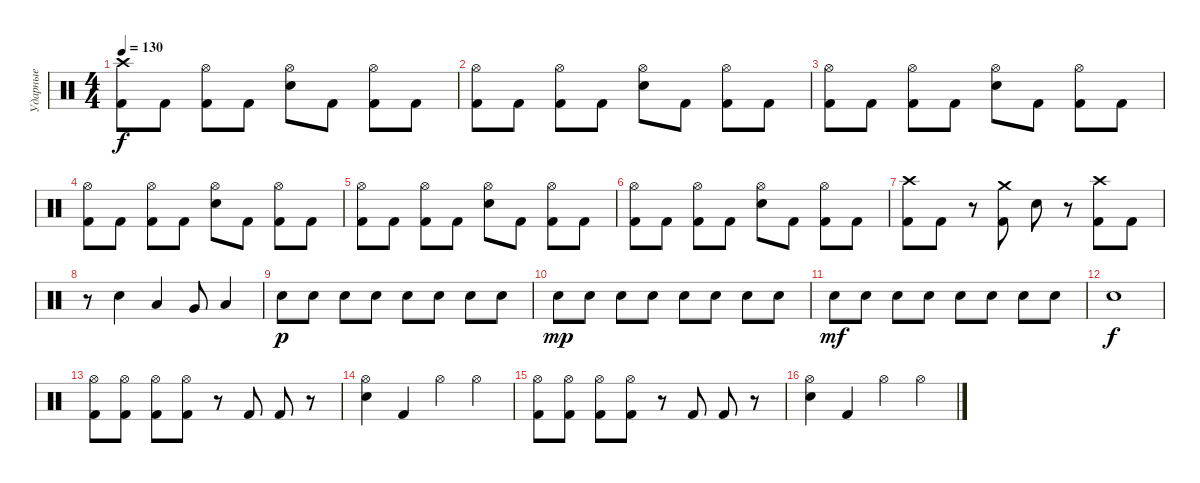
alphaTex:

\track ("Ударные" "Ударные") {instrument percussion}
\staff {score}
\articulation defaults
\ts (4 4)
\tempo 130
\clef neutral
\ks c
("Crash high (hit)" "Kick (hit) 2").8{dy f} "Kick (hit) 2".8 ("Hi-Hat (open)" "Kick (hit) 2").8 "Kick (hit) 2".8 ("Hi-Hat (open)" "Snare (hit) 2").8 "Kick (hit) 2".8 ("Hi-Hat (open)" "Kick (hit) 2").8 "Kick (hit) 2".8 |
("Hi-Hat (open)" "Kick (hit) 2").8 "Kick (hit) 2".8 ("Hi-Hat (open)" "Kick (hit) 2").8 "Kick (hit) 2".8 ("Hi-Hat (open)" "Snare (hit) 2").8 "Kick (hit) 2".8 ("Hi-Hat (open)" "Kick (hit) 2").8 "Kick (hit) 2".8 |
("Hi-Hat (open)" "Kick (hit) 2").8 "Kick (hit) 2".8 ("Hi-Hat (open)" "Kick (hit) 2").8 "Kick (hit) 2".8 ("Hi-Hat (open)" "Snare (hit) 2").8 "Kick (hit) 2".8 ("Hi-Hat (open)" "Kick (hit) 2").8 "Kick (hit) 2".8 |
("Hi-Hat (open)" "Kick (hit) 2").8 "Kick (hit) 2".8 ("Hi-Hat (open)" "Kick (hit) 2").8 "Kick (hit) 2".8 ("Hi-Hat (open)" "Snare (hit) 2").8 "Kick (hit) 2".8 ("Hi-Hat (open)" "Kick (hit) 2").8 "Kick (hit) 2".8 |
("Hi-Hat (open)" "Kick (hit) 2").8 "Kick (hit) 2".8 ("Hi-Hat (open)" "Kick (hit) 2").8 "Kick (hit) 2".8 ("Hi-Hat (open)" "Snare (hit) 2").8 "Kick (hit) 2".8 ("Hi-Hat (open)" "Kick (hit) 2").8 "Kick (hit) 2".8 |
("Hi-Hat (open)" "Kick (hit) 2").8 "Kick (hit) 2".8 ("Hi-Hat (open)" "Kick (hit) 2").8 "Kick (hit) 2".8 ("Hi-Hat (open)" "Snare (hit) 2").8 "Kick (hit) 2".8 ("Hi-Hat (open)" "Kick (hit) 2").8 "Kick (hit) 2".8 |
("Crash high (hit)" "Kick (hit) 2").8 "Kick (hit) 2".8 r.8 ("Crash medium (hit)" "Kick (hit) 2").8 "Snare (hit) 2".8 r.8 ("Crash high (hit)" "Kick (hit) 2").8 "Kick (hit) 2".8 |
r.8 "Snare (hit) 2".4 "Low Tom (hit)".4 "Very Low Tom (hit)".8 "Low Floor Tom (hit)".4 |
"Snare (hit) 2".8{dy p} "Snare (hit) 2".8 "Snare (hit) 2".8 "Snare (hit) 2".8 "Snare (hit) 2".8 "Snare (hit) 2".8 "Snare (hit) 2".8 "Snare (hit) 2".8 |
"Snare (hit) 2".8{dy mp} "Snare (hit) 2".8 "Snare (hit) 2".8 "Snare (hit) 2".8 "Snare (hit) 2".8 "Snare (hit) 2".8 "Snare (hit) 2".8 "Snare (hit) 2".8 |
"Snare (hit) 2".8{dy mf} "Snare (hit) 2".8 "Snare (hit) 2".8 "Snare (hit) 2".8 "Snare (hit) 2".8 "Snare (hit) 2".8 "Snare (hit) 2".8 "Snare (hit) 2".8 |
"Snare (hit) 2".1{dy f} |
("Hi-Hat (open)" "Kick (hit) 2").8 ("Hi-Hat (open)" "Kick (hit) 2").8 ("Hi-Hat (open)" "Kick (hit) 2").8 ("Hi-Hat (open)" "Kick (hit) 2").8 r.8 "Kick (hit) 2".8 "Kick (hit) 2".8 r.8 |
("Hi-Hat (open)" "Snare (hit) 2").4 "Kick (hit) 2".4 "Hi-Hat (open)".4 "Hi-Hat (open)".4 |
("Hi-Hat (open)" "Kick (hit) 2").8 ("Hi-Hat (open)" "Kick (hit) 2").8 ("Hi-Hat (open)" "Kick (hit) 2").8 ("Hi-Hat (open)" "Kick (hit) 2").8 r.8 "Kick (hit) 2".8 "Kick (hit) 2".8 r.8 |
("Hi-Hat (open)" "Snare (hit) 2").4 "Kick (hit) 2".4 "Hi-Hat (open)".4 "Hi-Hat (open)".4
